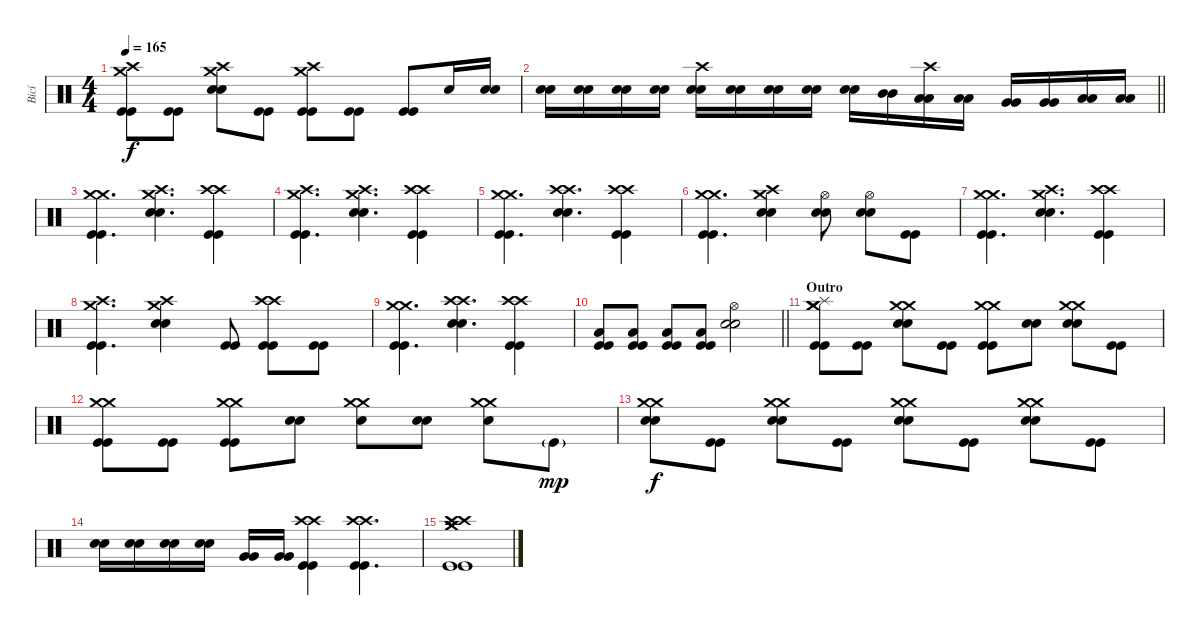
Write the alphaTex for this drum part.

\track ("Bicí" "Bicí") {instrument percussion}
\staff {score}
\articulation defaults
\ts (4 4)
\tempo 165
\clef neutral
\ks c
("Crash medium (hit)" "Crash high (hit)" "Kick (hit)" "Kick (hit)").8{dy f} ("Kick (hit)" "Kick (hit)").8 ("Crash medium (hit)" "Crash high (hit)" "Electric Snare (hit)" "Electric Snare (hit)").8 ("Kick (hit)" "Kick (hit)").8 ("Crash medium (hit)" "Crash high (hit)" "Kick (hit)" "Kick (hit)").8 ("Kick (hit)" "Kick (hit)").8 ("Kick (hit)" "Kick (hit)").8 "Snare (hit)".16 ("Electric Snare (hit)" "Electric Snare (hit)").16 |
\barLineRight lightlight
("Electric Snare (hit)" "Electric Snare (hit)").16 ("Electric Snare (hit)" "Electric Snare (hit)").16 ("Electric Snare (hit)" "Electric Snare (hit)").16 ("Electric Snare (hit)" "Electric Snare (hit)").16 ("Crash high (hit)" "Snare (hit)" "Snare (hit)").16 ("Electric Snare (hit)" "Electric Snare (hit)").16 ("Electric Snare (hit)" "Electric Snare (hit)").16 ("Electric Snare (hit)" "Electric Snare (hit)").16 ("Electric Snare (hit)" "Electric Snare (hit)").16 ("Mid Tom (hit)" "Mid Tom (hit)").16 ("Crash high (hit)" "Low Tom (hit)" "Low Tom (hit)").16 ("Low Tom (hit)" "Low Tom (hit)").16 ("Very Low Tom (hit)" "Very Low Tom (hit)").16 ("Very Low Tom (hit)" "Very Low Tom (hit)").16 ("Low Floor Tom (hit)" "Low Floor Tom (hit)").16 ("Low Floor Tom (hit)" "Low Floor Tom (hit)").16 |
("Crash medium (hit)" "Crash medium (hit)" "Kick (hit)" "Kick (hit)").4{d} ("Crash high (hit)" "Crash medium (hit)" "Electric Snare (hit)" "Electric Snare (hit)").4{d} ("Crash high (hit)" "Crash high (hit)" "Kick (hit)" "Kick (hit)").4 |
("Crash medium (hit)" "Crash high (hit)" "Kick (hit)" "Kick (hit)").4{d} ("Crash high (hit)" "Crash medium (hit)" "Electric Snare (hit)" "Electric Snare (hit)").4{d} ("Crash high (hit)" "Crash high (hit)" "Kick (hit)" "Kick (hit)").4 |
("Crash medium (hit)" "Crash medium (hit)" "Kick (hit)" "Kick (hit)").4{d} ("Crash high (hit)" "Crash high (hit)" "Electric Snare (hit)" "Electric Snare (hit)").4{d} ("Crash high (hit)" "Crash high (hit)" "Kick (hit)" "Kick (hit)").4 |
("Crash medium (hit)" "Crash medium (hit)" "Kick (hit)" "Kick (hit)").4{d} ("Crash high (hit)" "Crash medium (hit)" "Electric Snare (hit)" "Electric Snare (hit)").4 ("Hi-Hat (open)" "Electric Snare (hit)" "Electric Snare (hit)").8 ("Hi-Hat (open)" "Electric Snare (hit)" "Electric Snare (hit)").8 ("Kick (hit)" "Kick (hit)").8 |
("Crash medium (hit)" "Crash medium (hit)" "Kick (hit)" "Kick (hit)").4{d} ("Crash high (hit)" "Crash medium (hit)" "Electric Snare (hit)" "Electric Snare (hit)").4{d} ("Crash high (hit)" "Crash high (hit)" "Kick (hit)" "Kick (hit)").4 |
("Crash medium (hit)" "Crash high (hit)" "Kick (hit)" "Kick (hit)").4{d} ("Crash high (hit)" "Crash medium (hit)" "Electric Snare (hit)" "Electric Snare (hit)").4 ("Kick (hit)" "Kick (hit)").8 ("Crash high (hit)" "Crash high (hit)" "Kick (hit)" "Kick (hit)").8 ("Kick (hit)" "Kick (hit)").8 |
("Crash medium (hit)" "Crash medium (hit)" "Kick (hit)" "Kick (hit)").4{d} ("Crash high (hit)" "Crash high (hit)" "Electric Snare (hit)" "Electric Snare (hit)").4{d} ("Crash high (hit)" "Crash high (hit)" "Kick (hit)" "Kick (hit)").4 |
\barLineRight lightlight
("Low Tom (hit)" "Kick (hit)" "Kick (hit)").8 ("Low Tom (hit)" "Kick (hit)" "Kick (hit)").8 ("Low Tom (hit)" "Kick (hit)" "Kick (hit)").8 ("Low Tom (hit)" "Kick (hit)" "Kick (hit)").8 ("Hi-Hat (open)" "Electric Snare (hit)" "Electric Snare (hit)").2 |
\section ("" "Outro")
("Crash medium (hit)" "Crash medium (hit)" "Splash (hit)" "Kick (hit)" "Kick (hit)").8 ("Kick (hit)" "Kick (hit)").8 ("Crash medium (hit)" "Crash medium (hit)" "Electric Snare (hit)" "Electric Snare (hit)").8 ("Kick (hit)" "Kick (hit)").8 ("Crash medium (hit)" "Crash medium (hit)" "Kick (hit)" "Kick (hit)").8 ("Electric Snare (hit)" "Electric Snare (hit)").8 ("Crash medium (hit)" "Crash medium (hit)" "Electric Snare (hit)" "Electric Snare (hit)").8 ("Kick (hit)" "Kick (hit)").8 |
("Crash medium (hit)" "Crash medium (hit)" "Kick (hit)" "Kick (hit)").8 ("Kick (hit)" "Kick (hit)").8 ("Crash medium (hit)" "Crash medium (hit)" "Kick (hit)" "Kick (hit)").8 ("Electric Snare (hit)" "Electric Snare (hit)").8 ("Crash medium (hit)" "Crash medium (hit)" "Snare (hit)").8 ("Electric Snare (hit)" "Electric Snare (hit)").8 ("Crash medium (hit)" "Crash medium (hit)" "Snare (hit)").8 "Kick (hit)"{g}.8{dy mp} |
("Crash medium (hit)" "Crash medium (hit)" "Electric Snare (hit)" "Electric Snare (hit)").8{dy f} ("Kick (hit)" "Kick (hit)").8 ("Crash medium (hit)" "Crash medium (hit)" "Electric Snare (hit)" "Electric Snare (hit)").8 ("Kick (hit)" "Kick (hit)").8 ("Crash medium (hit)" "Crash medium (hit)" "Electric Snare (hit)" "Electric Snare (hit)").8 ("Kick (hit)" "Kick (hit)").8 ("Crash medium (hit)" "Crash medium (hit)" "Electric Snare (hit)" "Electric Snare (hit)").8 ("Kick (hit)" "Kick (hit)").8 |
("Electric Snare (hit)" "Electric Snare (hit)").16 ("Electric Snare (hit)" "Electric Snare (hit)").16 ("Electric Snare (hit)" "Electric Snare (hit)").16 ("Electric Snare (hit)" "Electric Snare (hit)").16 ("Very Low Tom (hit)" "Very Low Tom (hit)").16 ("Very Low Tom (hit)" "Very Low Tom (hit)").16 ("Crash high (hit)" "Crash high (hit)" "Kick (hit)" "Kick (hit)").4 ("Crash high (hit)" "Crash high (hit)" "Kick (hit)" "Kick (hit)").4{d} |
("Crash high (hit)" "Crash high (hit)" "Crash medium (hit)" "Crash medium (hit)" "Kick (hit)" "Kick (hit)").1
